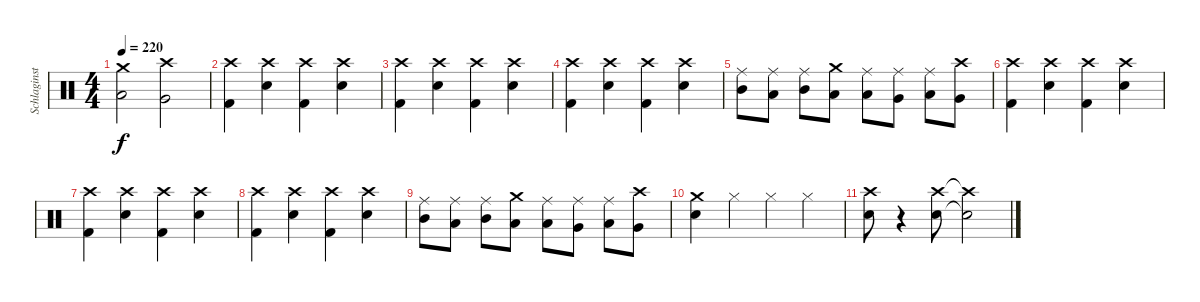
\track ("Schlaginstrumente - Auswahl" "Schlaginst") {instrument percussion}
\staff {score}
\articulation defaults
\ts (4 4)
\tempo 220
\clef neutral
\ks c
("Crash medium (hit)" "Low Tom (hit)").2{dy f} ("Crash high (hit)" "Very Low Tom (hit)").2 |
("Crash high (hit)" "Kick (hit) 2").4 ("Crash high (hit)" "Snare (hit) 2").4 ("Crash high (hit)" "Kick (hit) 2").4 ("Crash high (hit)" "Snare (hit) 2").4 |
("Crash high (hit)" "Kick (hit) 2").4 ("Crash high (hit)" "Snare (hit) 2").4 ("Crash high (hit)" "Kick (hit) 2").4 ("Crash high (hit)" "Snare (hit) 2").4 |
("Crash high (hit)" "Kick (hit) 2").4 ("Crash high (hit)" "Snare (hit) 2").4 ("Crash high (hit)" "Kick (hit) 2").4 ("Crash high (hit)" "Snare (hit) 2").4 |
("Ride (middle)" "Mid Tom (hit)").8 ("Ride (middle)" "Low Tom (hit)").8 ("Ride (middle)" "Mid Tom (hit)").8 ("Crash medium (hit)" "Low Tom (hit)").8 ("Ride (middle)" "Low Tom (hit)").8 ("Ride (middle)" "Very Low Tom (hit)").8 ("Ride (middle)" "Low Tom (hit)").8 ("Crash high (hit)" "Very Low Tom (hit)").8 |
("Crash high (hit)" "Kick (hit) 2").4 ("Crash high (hit)" "Snare (hit) 2").4 ("Crash high (hit)" "Kick (hit) 2").4 ("Crash high (hit)" "Snare (hit) 2").4 |
("Crash high (hit)" "Kick (hit) 2").4 ("Crash high (hit)" "Snare (hit) 2").4 ("Crash high (hit)" "Kick (hit) 2").4 ("Crash high (hit)" "Snare (hit) 2").4 |
("Crash high (hit)" "Kick (hit) 2").4 ("Crash high (hit)" "Snare (hit) 2").4 ("Crash high (hit)" "Kick (hit) 2").4 ("Crash high (hit)" "Snare (hit) 2").4 |
("Ride (middle)" "Mid Tom (hit)").8 ("Ride (middle)" "Low Tom (hit)").8 ("Ride (middle)" "Mid Tom (hit)").8 ("Crash medium (hit)" "Low Tom (hit)").8 ("Ride (middle)" "Low Tom (hit)").8 ("Ride (middle)" "Very Low Tom (hit)").8 ("Ride (middle)" "Low Tom (hit)").8 ("Crash high (hit)" "Very Low Tom (hit)").8 |
("Crash medium (hit)" "Snare (hit) 2").4 "Hi-Hat (closed)".4 "Hi-Hat (closed)".4 "Hi-Hat (closed)".4 |
("Crash high (hit)" "Snare (hit) 2").8 r.4 ("Crash high (hit)" "Snare (hit) 2").8 ("Crash high (hit)"{t} "Snare (hit) 2"{t}).2
